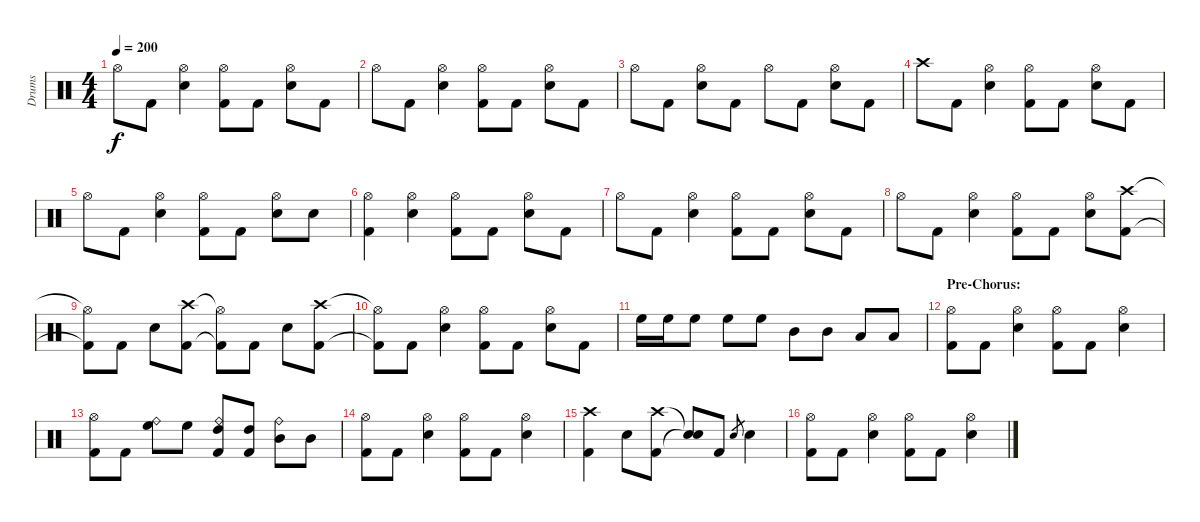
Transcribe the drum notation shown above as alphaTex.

\track ("Drums" "Drums") {instrument percussion}
\staff {score}
\articulation defaults
\ts (4 4)
\tempo 200
\clef neutral
\ks c "Hi-Hat (open)".8{dy f} "Kick (hit) 2".8
("Hi-Hat (open)" "Electric Snare (hit)").4 ("Hi-Hat (open)" "Kick (hit) 2").8 "Kick (hit) 2".8 ("Hi-Hat (open)" "Electric Snare (hit)").8 "Kick (hit) 2".8 |
"Hi-Hat (open)".8 "Kick (hit) 2".8 ("Hi-Hat (open)" "Electric Snare (hit)").4 ("Hi-Hat (open)" "Kick (hit) 2").8 "Kick (hit) 2".8 ("Hi-Hat (open)" "Electric Snare (hit)").8 "Kick (hit) 2".8 |
"Hi-Hat (open)".8 "Kick (hit) 2".8 ("Hi-Hat (open)" "Electric Snare (hit)").8 "Kick (hit) 2".8 "Hi-Hat (open)".8 "Kick (hit) 2".8 ("Hi-Hat (open)" "Electric Snare (hit)").8 "Kick (hit) 2".8 |
"Crash high (hit)".8 "Kick (hit) 2".8 ("Hi-Hat (open)" "Electric Snare (hit)").4 ("Hi-Hat (open)" "Kick (hit) 2").8 "Kick (hit) 2".8 ("Hi-Hat (open)" "Electric Snare (hit)").8 "Kick (hit) 2".8 |
"Hi-Hat (open)".8 "Kick (hit) 2".8 ("Hi-Hat (open)" "Electric Snare (hit)").4 ("Hi-Hat (open)" "Kick (hit) 2").8 "Kick (hit) 2".8 ("Hi-Hat (open)" "Electric Snare (hit)").8 "Electric Snare (hit)".8 |
("Hi-Hat (open)" "Kick (hit) 2").4 ("Hi-Hat (open)" "Electric Snare (hit)").4 ("Hi-Hat (open)" "Kick (hit) 2").8 "Kick (hit) 2".8 ("Hi-Hat (open)" "Electric Snare (hit)").8 "Kick (hit) 2".8 |
"Hi-Hat (open)".8 "Kick (hit) 2".8 ("Hi-Hat (open)" "Electric Snare (hit)").4 ("Hi-Hat (open)" "Kick (hit) 2").8 "Kick (hit) 2".8 ("Hi-Hat (open)" "Electric Snare (hit)").8 "Kick (hit) 2".8 |
"Hi-Hat (open)".8 "Kick (hit) 2".8 ("Hi-Hat (open)" "Electric Snare (hit)").4 ("Hi-Hat (open)" "Kick (hit) 2").8 "Kick (hit) 2".8 ("Hi-Hat (open)" "Electric Snare (hit)").8 ("Crash high (hit)" "Kick (hit) 2").8 |
("Hi-Hat (open)"{t} "Kick (hit) 2"{t}).8 "Kick (hit) 2".8 "Electric Snare (hit)".8 ("Crash high (hit)" "Kick (hit) 2").8 ("Hi-Hat (open)"{t} "Kick (hit) 2"{t}).8 "Kick (hit) 2".8 "Electric Snare (hit)".8 ("Crash high (hit)" "Kick (hit) 2").8 |
("Hi-Hat (open)"{t} "Kick (hit) 2"{t}).8 "Kick (hit) 2".8 ("Hi-Hat (open)" "Electric Snare (hit)").4 ("Hi-Hat (open)" "Kick (hit) 2").8 "Kick (hit) 2".8 ("Hi-Hat (open)" "Electric Snare (hit)").8 "Kick (hit) 2".8 |
"High Floor Tom (hit)".16 "High Floor Tom (hit)".16 "High Floor Tom (hit)".8 "High Floor Tom (hit)".8 "High Floor Tom (hit)".8 "Mid Tom (hit)".8 "Mid Tom (hit)".8 "Low Tom (hit)".8 "Low Tom (hit)".8 |
\section ("" "Pre-Chorus:")
("Hi-Hat (open)" "Kick (hit) 2").8 "Kick (hit) 2".8 ("Hi-Hat (open)" "Electric Snare (hit)").4 ("Hi-Hat (open)" "Kick (hit) 2").8 "Kick (hit) 2".8 ("Hi-Hat (open)" "Electric Snare (hit)").4 |
("Hi-Hat (open)" "Kick (hit) 2").8 "Kick (hit) 2".8 ("Ride (bell)" "High Floor Tom (hit)").8 "High Floor Tom (hit)".8 ("Ride (bell)" "High Tom (hit)" "Kick (hit) 2").8 ("High Tom (hit)" "Kick (hit) 2").8 ("Ride (bell)" "Mid Tom (hit)").8 "Mid Tom (hit)".8 |
("Hi-Hat (open)" "Kick (hit) 2").8 "Kick (hit) 2".8 ("Hi-Hat (open)" "Electric Snare (hit)").4 ("Hi-Hat (open)" "Kick (hit) 2").8 "Kick (hit) 2".8 ("Hi-Hat (open)" "Electric Snare (hit)").4 |
("Crash high (hit)" "Kick (hit) 2").4 "Electric Snare (hit)".8 ("Crash high (hit)" "Kick (hit) 2").8 ("Snare (hit)"{t} "Snare (hit)"{t}).8 "Kick (hit) 2".8 "Electric Snare (hit)".8{gr} "Electric Snare (hit)".4 |
("Hi-Hat (open)" "Kick (hit) 2").8 "Kick (hit) 2".8 ("Hi-Hat (open)" "Electric Snare (hit)").4 ("Hi-Hat (open)" "Kick (hit) 2").8 "Kick (hit) 2".8 ("Hi-Hat (open)" "Electric Snare (hit)").4
